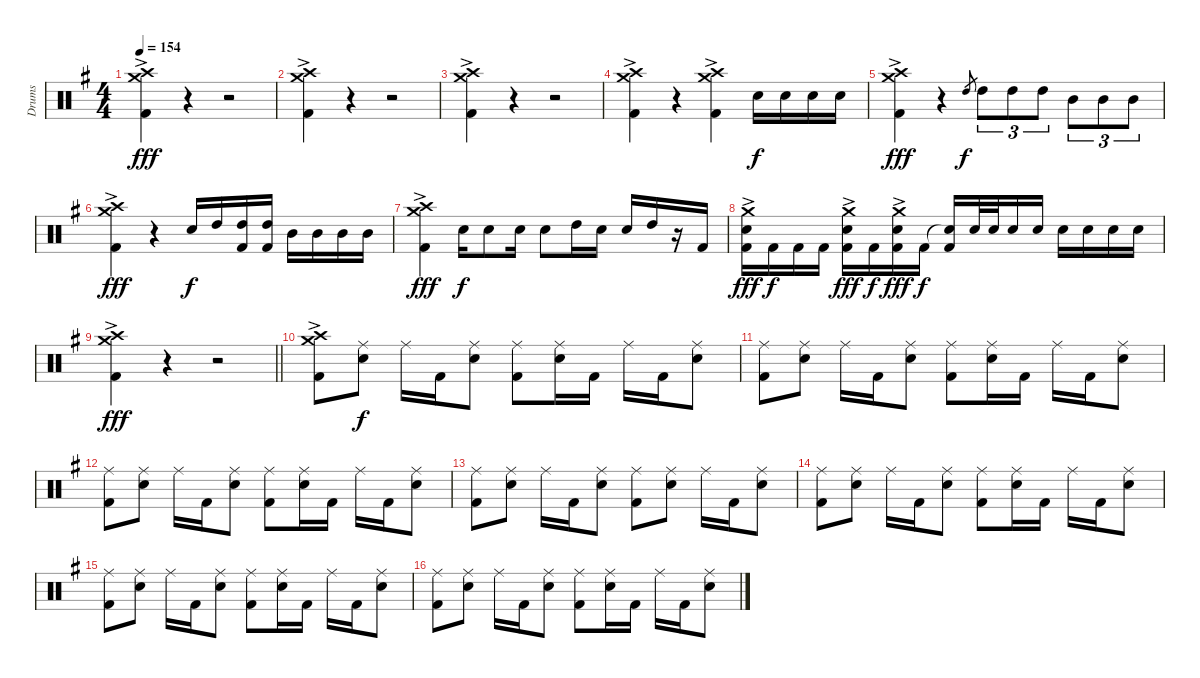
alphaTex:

\track ("Drums" "Drums") {instrument percussion}
\staff {score}
\articulation defaults
\ts (4 4)
\tempo 154
\clef neutral
\ks g
("Crash medium (hit)"{ac} "Crash high (hit)"{ac} "Kick (hit) 2"{ac}).4{dy fff} r.4 r.2 |
("Crash medium (hit)"{ac} "Crash high (hit)"{ac} "Kick (hit) 2"{ac}).4 r.4 r.2 |
("Crash medium (hit)"{ac} "Crash high (hit)"{ac} "Kick (hit) 2"{ac}).4 r.4 r.2 |
("Crash medium (hit)"{ac} "Crash high (hit)"{ac} "Kick (hit) 2"{ac}).4 r.4 ("Crash medium (hit)"{ac} "Crash high (hit)"{ac} "Kick (hit) 2"{ac}).4 "Snare (hit) 2".16{dy f} "Snare (hit) 2".16 "Snare (hit) 2".16 "Snare (hit) 2".16 |
("Crash medium (hit)"{ac} "Crash high (hit)"{ac} "Kick (hit) 2"{ac}).4{dy fff} r.4 "High Tom (hit)".8{gr dy f} "High Tom (hit)".8{tu (3 2)} "High Tom (hit)".8{tu (3 2)} "High Tom (hit)".8{tu (3 2)} "Mid Tom (hit)".8{tu (3 2)} "Mid Tom (hit)".8{tu (3 2)} "Mid Tom (hit)".8{tu (3 2)} |
("Crash medium (hit)"{ac} "Crash high (hit)"{ac} "Kick (hit) 2"{ac}).4{dy fff} r.4 "Snare (hit) 2".16{dy f} "High Tom (hit)".16 ("High Tom (hit)" "Kick (hit) 2").16 ("High Tom (hit)" "Kick (hit) 2").16 "Mid Tom (hit)".16 "Mid Tom (hit)".16 "Mid Tom (hit)".16 "Mid Tom (hit)".16 |
("Crash medium (hit)"{ac} "Crash high (hit)"{ac} "Kick (hit) 2"{ac}).4{dy fff} "Snare (hit) 2".16{dy f} "Snare (hit) 2".8 "Snare (hit) 2".16 "Snare (hit) 2".8 "High Tom (hit)".16 "Snare (hit) 2".16 "Snare (hit) 2".16 "High Tom (hit)".16 r.16 "Kick (hit) 2".16 |
("Crash medium (hit)"{ac} "Snare (hit) 2"{ac} "Kick (hit) 2").16{dy fff} "Kick (hit) 2".16{dy f} "Kick (hit) 2".16 "Kick (hit) 2".16 ("Crash medium (hit)"{ac} "Snare (hit) 2"{ac} "Kick (hit) 2").16{dy fff} "Kick (hit) 2".16{dy f} ("Crash medium (hit)"{ac} "Snare (hit) 2"{ac} "Kick (hit) 2").16{dy fff} "Kick (hit) 2".16{dy f} ("Snare (hit)"{t} "Kick (hit) 2").16 "Snare (hit) 2".32 "Snare (hit) 2".32 "Snare (hit) 2".16 "Snare (hit) 2".16 "Snare (hit) 2".16 "Snare (hit) 2".16 "Snare (hit) 2".16 "Snare (hit) 2".16 |
\barLineRight lightlight
("Crash medium (hit)"{ac} "Crash high (hit)"{ac} "Kick (hit) 2"{ac}).4{dy fff} r.4 r.2 |
("Crash medium (hit)"{ac} "Crash high (hit)"{ac} "Kick (hit) 2"{ac}).8 ("Ride (middle)" "Snare (hit) 2").8{dy f} "Ride (middle)".16 "Kick (hit) 2".16 ("Ride (middle)" "Snare (hit) 2").8 ("Ride (middle)" "Kick (hit) 2").8 ("Ride (middle)" "Snare (hit) 2").16 "Kick (hit) 2".16 "Ride (middle)".16 "Kick (hit) 2".16 ("Ride (middle)" "Snare (hit) 2").8 |
("Ride (middle)" "Kick (hit) 2").8 ("Ride (middle)" "Snare (hit) 2").8 "Ride (middle)".16 "Kick (hit) 2".16 ("Ride (middle)" "Snare (hit) 2").8 ("Ride (middle)" "Kick (hit) 2").8 ("Ride (middle)" "Snare (hit) 2").16 "Kick (hit) 2".16 "Ride (middle)".16 "Kick (hit) 2".16 ("Ride (middle)" "Snare (hit) 2").8 |
("Ride (middle)" "Kick (hit) 2").8 ("Ride (middle)" "Snare (hit) 2").8 "Ride (middle)".16 "Kick (hit) 2".16 ("Ride (middle)" "Snare (hit) 2").8 ("Ride (middle)" "Kick (hit) 2").8 ("Ride (middle)" "Snare (hit) 2").16 "Kick (hit) 2".16 "Ride (middle)".16 "Kick (hit) 2".16 ("Ride (middle)" "Snare (hit) 2").8 |
("Ride (middle)" "Kick (hit) 2").8 ("Ride (middle)" "Snare (hit) 2").8 "Ride (middle)".16 "Kick (hit) 2".16 ("Ride (middle)" "Snare (hit) 2").8 ("Ride (middle)" "Kick (hit) 2").8 ("Ride (middle)" "Snare (hit) 2").8 "Ride (middle)".16 "Kick (hit) 2".16 ("Ride (middle)" "Snare (hit) 2").8 |
("Ride (middle)" "Kick (hit) 2").8 ("Ride (middle)" "Snare (hit) 2").8 "Ride (middle)".16 "Kick (hit) 2".16 ("Ride (middle)" "Snare (hit) 2").8 ("Ride (middle)" "Kick (hit) 2").8 ("Ride (middle)" "Snare (hit) 2").16 "Kick (hit) 2".16 "Ride (middle)".16 "Kick (hit) 2".16 ("Ride (middle)" "Snare (hit) 2").8 |
("Ride (middle)" "Kick (hit) 2").8 ("Ride (middle)" "Snare (hit) 2").8 "Ride (middle)".16 "Kick (hit) 2".16 ("Ride (middle)" "Snare (hit) 2").8 ("Ride (middle)" "Kick (hit) 2").8 ("Ride (middle)" "Snare (hit) 2").16 "Kick (hit) 2".16 "Ride (middle)".16 "Kick (hit) 2".16 ("Ride (middle)" "Snare (hit) 2").8 |
("Ride (middle)" "Kick (hit) 2").8 ("Ride (middle)" "Snare (hit) 2").8 "Ride (middle)".16 "Kick (hit) 2".16 ("Ride (middle)" "Snare (hit) 2").8 ("Ride (middle)" "Kick (hit) 2").8 ("Ride (middle)" "Snare (hit) 2").16 "Kick (hit) 2".16 "Ride (middle)".16 "Kick (hit) 2".16 ("Ride (middle)" "Snare (hit) 2").8
